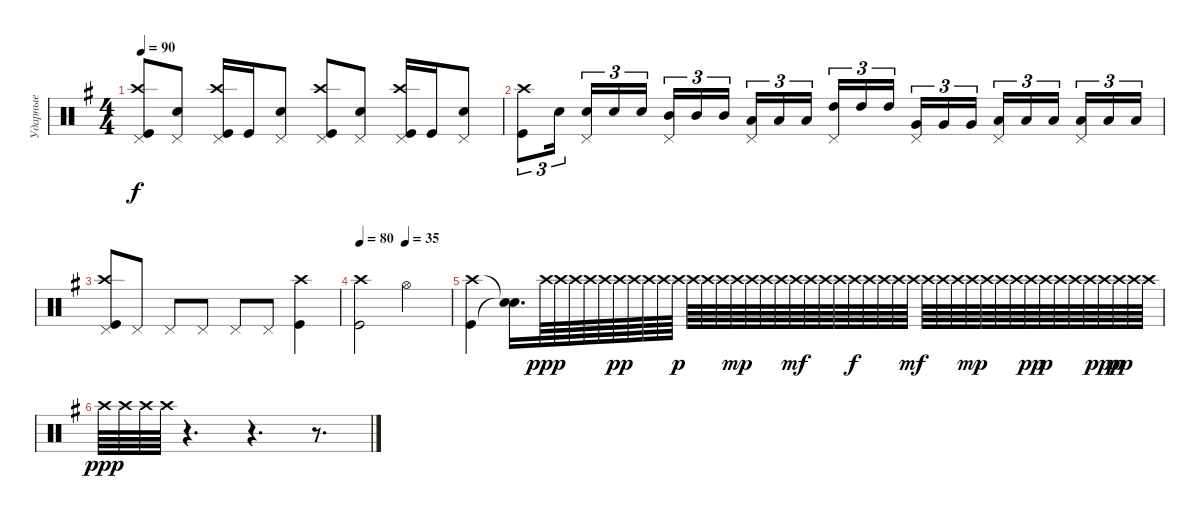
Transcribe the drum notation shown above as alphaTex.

\track ("Ударные" "Ударные") {instrument percussion}
\staff {score}
\articulation defaults
\ts (4 4)
\tempo 90
\clef neutral
\ks eminor
("Kick (hit)" "Crash high (hit)" "Pedal Hi-Hat (hit)").8{dy f} ("Snare (hit) 2" "Pedal Hi-Hat (hit)").8 ("Kick (hit)" "Crash high (hit)" "Pedal Hi-Hat (hit)").16 "Kick (hit)".16 ("Snare (hit) 2" "Pedal Hi-Hat (hit)").8 ("Kick (hit)" "Crash high (hit)" "Pedal Hi-Hat (hit)").8 ("Snare (hit) 2" "Pedal Hi-Hat (hit)").8 ("Kick (hit)" "Crash high (hit)" "Pedal Hi-Hat (hit)").16 "Kick (hit)".16 ("Snare (hit) 2" "Pedal Hi-Hat (hit)").8 |
("Kick (hit)" "Crash high (hit)").8{tu (3 2)} "Snare (hit) 2".16{tu (3 2) beam splitsecondary} ("Snare (hit) 2" "Pedal Hi-Hat (hit)").16{tu (3 2)} "Snare (hit) 2".16{tu (3 2)} "Snare (hit) 2".16{tu (3 2)} ("Mid Tom (hit)" "Pedal Hi-Hat (hit)").16{tu (3 2)} "Mid Tom (hit)".16{tu (3 2)} "Mid Tom (hit)".16{tu (3 2) beam splitsecondary} ("Low Tom (hit)" "Pedal Hi-Hat (hit)").16{tu (3 2)} "Low Tom (hit)".16{tu (3 2)} "Low Tom (hit)".16{tu (3 2)} ("High Tom (hit)" "Pedal Hi-Hat (hit)").16{tu (3 2)} "High Tom (hit)".16{tu (3 2)} "High Tom (hit)".16{tu (3 2) beam splitsecondary} ("Very Low Tom (hit)" "Pedal Hi-Hat (hit)").16{tu (3 2)} "Very Low Tom (hit)".16{tu (3 2)} "Very Low Tom (hit)".16{tu (3 2)} ("Low Floor Tom (hit)" "Pedal Hi-Hat (hit)").16{tu (3 2)} "Low Floor Tom (hit)".16{tu (3 2)} "Low Floor Tom (hit)".16{tu (3 2) beam splitsecondary} ("Low Floor Tom (hit)" "Pedal Hi-Hat (hit)").16{tu (3 2)} "Low Floor Tom (hit)".16{tu (3 2)} "Low Floor Tom (hit)".16{tu (3 2)} |
("Kick (hit)" "Crash high (hit)" "Pedal Hi-Hat (hit)").8 "Pedal Hi-Hat (hit)".8 "Pedal Hi-Hat (hit)".8 "Pedal Hi-Hat (hit)".8 "Pedal Hi-Hat (hit)".8 "Pedal Hi-Hat (hit)".8 ("Crash high (hit)" "Kick (hit)").4 |
\tempo 80
\tempo (35 0.5)
("Kick (hit)" "Crash high (hit)").2 "Hi-Hat (open)".2 |
("Kick (hit)" "Crash high (hit)").4 ("Snare (hit)"{t} "Snare (hit)"{t}).16{d} "Crash high (hit)".64{dy ppp} "Crash high (hit)".64 "Crash high (hit)".64 "Crash high (hit)".64 "Crash high (hit)".64 "Crash high (hit)".64{dy pp} "Crash high (hit)".64 "Crash high (hit)".64 "Crash high (hit)".64 "Crash high (hit)".64{dy p} "Crash high (hit)".64 "Crash high (hit)".64 "Crash high (hit)".64 "Crash high (hit)".64{dy mp} "Crash high (hit)".64 "Crash high (hit)".64 "Crash high (hit)".64 "Crash high (hit)".64{dy mf} "Crash high (hit)".64 "Crash high (hit)".64 "Crash high (hit)".64 "Crash high (hit)".64{dy f} "Crash high (hit)".64 "Crash high (hit)".64 "Crash high (hit)".64 "Crash high (hit)".64{dy mf} "Crash high (hit)".64 "Crash high (hit)".64 "Crash high (hit)".64 "Crash high (hit)".64{dy mp} "Crash high (hit)".64 "Crash high (hit)".64 "Crash high (hit)".64 "Crash high (hit)".64{dy pp} "Crash high (hit)".64{dy p} "Crash high (hit)".64 "Crash high (hit)".64 "Crash high (hit)".64 "Crash high (hit)".64{dy ppp} "Crash high (hit)".64{dy pp} "Crash high (hit)".64 "Crash high (hit)".64 |
"Crash high (hit)".64{dy ppp} "Crash high (hit)".64 "Crash high (hit)".64 "Crash high (hit)".64 r.4{d} r.4{d} r.8{d}
